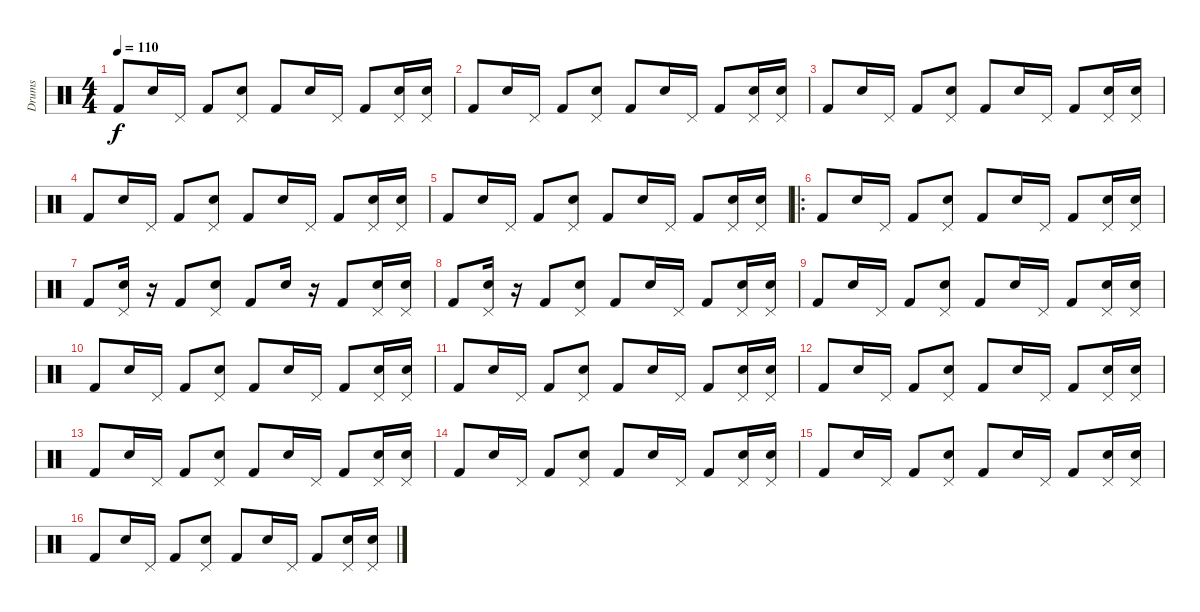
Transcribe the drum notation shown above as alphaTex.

\track ("Drums" "Drums") {instrument percussion}
\staff {score}
\articulation defaults
\ts (4 4)
\tempo 110
\clef neutral
\ks c "Kick (hit) 2".8{dy f volume 3} "Snare (hit) 2".16 "Pedal Hi-Hat (hit)".16 "Kick (hit) 2".8
("Pedal Hi-Hat (hit)" "Snare (hit) 2").8 "Kick (hit) 2".8 "Snare (hit) 2".16 "Pedal Hi-Hat (hit)".16 "Kick (hit) 2".8 ("Pedal Hi-Hat (hit)" "Snare (hit) 2").16 ("Pedal Hi-Hat (hit)" "Snare (hit) 2").16 |
"Kick (hit) 2".8{volume 9} "Snare (hit) 2".16 "Pedal Hi-Hat (hit)".16 "Kick (hit) 2".8 ("Pedal Hi-Hat (hit)" "Snare (hit) 2").8 "Kick (hit) 2".8 "Snare (hit) 2".16 "Pedal Hi-Hat (hit)".16 "Kick (hit) 2".8 ("Pedal Hi-Hat (hit)" "Snare (hit) 2").16 ("Pedal Hi-Hat (hit)" "Snare (hit) 2").16 |
"Kick (hit) 2".8{volume 12} "Snare (hit) 2".16 "Pedal Hi-Hat (hit)".16 "Kick (hit) 2".8 ("Pedal Hi-Hat (hit)" "Snare (hit) 2").8 "Kick (hit) 2".8 "Snare (hit) 2".16 "Pedal Hi-Hat (hit)".16 "Kick (hit) 2".8 ("Pedal Hi-Hat (hit)" "Snare (hit) 2").16 ("Pedal Hi-Hat (hit)" "Snare (hit) 2").16 |
"Kick (hit) 2".8 "Snare (hit) 2".16 "Pedal Hi-Hat (hit)".16 "Kick (hit) 2".8 ("Pedal Hi-Hat (hit)" "Snare (hit) 2").8 "Kick (hit) 2".8 "Snare (hit) 2".16 "Pedal Hi-Hat (hit)".16 "Kick (hit) 2".8 ("Pedal Hi-Hat (hit)" "Snare (hit) 2").16 ("Pedal Hi-Hat (hit)" "Snare (hit) 2").16 |
"Kick (hit) 2".8 "Snare (hit) 2".16 "Pedal Hi-Hat (hit)".16 "Kick (hit) 2".8 ("Pedal Hi-Hat (hit)" "Snare (hit) 2").8 "Kick (hit) 2".8 "Snare (hit) 2".16 "Pedal Hi-Hat (hit)".16 "Kick (hit) 2".8 ("Pedal Hi-Hat (hit)" "Snare (hit) 2").16 ("Pedal Hi-Hat (hit)" "Snare (hit) 2").16 |
\ro "Kick (hit) 2".8 "Snare (hit) 2".16 "Pedal Hi-Hat (hit)".16 "Kick (hit) 2".8
("Pedal Hi-Hat (hit)" "Snare (hit) 2").8 "Kick (hit) 2".8 "Snare (hit) 2".16 "Pedal Hi-Hat (hit)".16 "Kick (hit) 2".8 ("Pedal Hi-Hat (hit)" "Snare (hit) 2").16 ("Pedal Hi-Hat (hit)" "Snare (hit) 2").16 |
"Kick (hit) 2".8 ("Pedal Hi-Hat (hit)" "Snare (hit) 2").16 r.16 "Kick (hit) 2".8 ("Pedal Hi-Hat (hit)" "Snare (hit) 2").8 "Kick (hit) 2".8 "Snare (hit) 2".16 r.16 "Kick (hit) 2".8 ("Pedal Hi-Hat (hit)" "Snare (hit) 2").16 ("Pedal Hi-Hat (hit)" "Snare (hit) 2").16 |
"Kick (hit) 2".8 ("Pedal Hi-Hat (hit)" "Snare (hit) 2").16 r.16 "Kick (hit) 2".8 ("Pedal Hi-Hat (hit)" "Snare (hit) 2").8 "Kick (hit) 2".8 "Snare (hit) 2".16 "Pedal Hi-Hat (hit)".16 "Kick (hit) 2".8 ("Pedal Hi-Hat (hit)" "Snare (hit) 2").16 ("Pedal Hi-Hat (hit)" "Snare (hit) 2").16 |
"Kick (hit) 2".8 "Snare (hit) 2".16 "Pedal Hi-Hat (hit)".16 "Kick (hit) 2".8 ("Pedal Hi-Hat (hit)" "Snare (hit) 2").8 "Kick (hit) 2".8 "Snare (hit) 2".16 "Pedal Hi-Hat (hit)".16 "Kick (hit) 2".8 ("Pedal Hi-Hat (hit)" "Snare (hit) 2").16 ("Pedal Hi-Hat (hit)" "Snare (hit) 2").16 |
"Kick (hit) 2".8{volume 16} "Snare (hit) 2".16 "Pedal Hi-Hat (hit)".16 "Kick (hit) 2".8 ("Pedal Hi-Hat (hit)" "Snare (hit) 2").8 "Kick (hit) 2".8 "Snare (hit) 2".16 "Pedal Hi-Hat (hit)".16 "Kick (hit) 2".8 ("Pedal Hi-Hat (hit)" "Snare (hit) 2").16 ("Pedal Hi-Hat (hit)" "Snare (hit) 2").16 |
"Kick (hit) 2".8{volume 16} "Snare (hit) 2".16 "Pedal Hi-Hat (hit)".16 "Kick (hit) 2".8 ("Pedal Hi-Hat (hit)" "Snare (hit) 2").8 "Kick (hit) 2".8 "Snare (hit) 2".16 "Pedal Hi-Hat (hit)".16 "Kick (hit) 2".8 ("Pedal Hi-Hat (hit)" "Snare (hit) 2").16 ("Pedal Hi-Hat (hit)" "Snare (hit) 2").16 |
"Kick (hit) 2".8 "Snare (hit) 2".16 "Pedal Hi-Hat (hit)".16 "Kick (hit) 2".8 ("Pedal Hi-Hat (hit)" "Snare (hit) 2").8 "Kick (hit) 2".8 "Snare (hit) 2".16 "Pedal Hi-Hat (hit)".16 "Kick (hit) 2".8 ("Pedal Hi-Hat (hit)" "Snare (hit) 2").16 ("Pedal Hi-Hat (hit)" "Snare (hit) 2").16 |
"Kick (hit) 2".8{volume 12} "Snare (hit) 2".16 "Pedal Hi-Hat (hit)".16 "Kick (hit) 2".8 ("Pedal Hi-Hat (hit)" "Snare (hit) 2").8 "Kick (hit) 2".8 "Snare (hit) 2".16 "Pedal Hi-Hat (hit)".16 "Kick (hit) 2".8 ("Pedal Hi-Hat (hit)" "Snare (hit) 2").16 ("Pedal Hi-Hat (hit)" "Snare (hit) 2").16 |
"Kick (hit) 2".8 "Snare (hit) 2".16 "Pedal Hi-Hat (hit)".16 "Kick (hit) 2".8 ("Pedal Hi-Hat (hit)" "Snare (hit) 2").8 "Kick (hit) 2".8 "Snare (hit) 2".16 "Pedal Hi-Hat (hit)".16 "Kick (hit) 2".8 ("Pedal Hi-Hat (hit)" "Snare (hit) 2").16 ("Pedal Hi-Hat (hit)" "Snare (hit) 2").16 |
"Kick (hit) 2".8 "Snare (hit) 2".16 "Pedal Hi-Hat (hit)".16 "Kick (hit) 2".8 ("Pedal Hi-Hat (hit)" "Snare (hit) 2").8 "Kick (hit) 2".8 "Snare (hit) 2".16 "Pedal Hi-Hat (hit)".16 "Kick (hit) 2".8 ("Pedal Hi-Hat (hit)" "Snare (hit) 2").16 ("Pedal Hi-Hat (hit)" "Snare (hit) 2").16 |
"Kick (hit) 2".8 "Snare (hit) 2".16 "Pedal Hi-Hat (hit)".16 "Kick (hit) 2".8 ("Pedal Hi-Hat (hit)" "Snare (hit) 2").8 "Kick (hit) 2".8 "Snare (hit) 2".16 "Pedal Hi-Hat (hit)".16 "Kick (hit) 2".8 ("Pedal Hi-Hat (hit)" "Snare (hit) 2").16 ("Pedal Hi-Hat (hit)" "Snare (hit) 2").16
